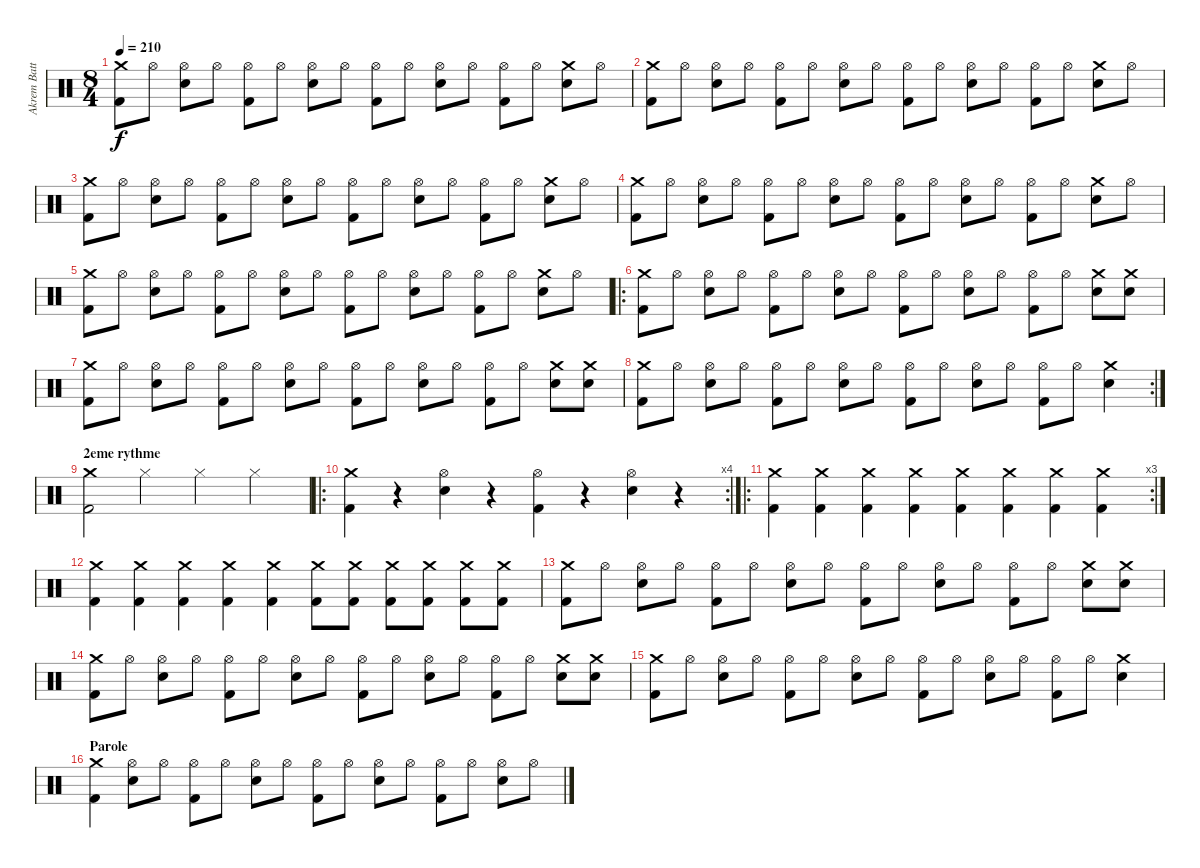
\track ("Akrem Batterie" "Akrem Batt") {instrument percussion}
\staff {score}
\articulation defaults
\ts (8 4)
\tempo 210
\clef neutral
\ks c
("Crash medium (hit)" "Kick (hit) 2").8{dy f} "Hi-Hat (open)".8 ("Hi-Hat (open)" "Electric Snare (hit)").8 "Hi-Hat (open)".8 ("Hi-Hat (open)" "Kick (hit) 2").8 "Hi-Hat (open)".8 ("Hi-Hat (open)" "Electric Snare (hit)").8 "Hi-Hat (open)".8 ("Hi-Hat (open)" "Kick (hit) 2").8 "Hi-Hat (open)".8 ("Hi-Hat (open)" "Electric Snare (hit)").8 "Hi-Hat (open)".8 ("Hi-Hat (open)" "Kick (hit) 2").8 "Hi-Hat (open)".8 ("Crash medium (hit)" "Electric Snare (hit)").8 "Hi-Hat (open)".8 |
("Crash medium (hit)" "Kick (hit) 2").8 "Hi-Hat (open)".8 ("Hi-Hat (open)" "Electric Snare (hit)").8 "Hi-Hat (open)".8 ("Hi-Hat (open)" "Kick (hit) 2").8 "Hi-Hat (open)".8 ("Hi-Hat (open)" "Electric Snare (hit)").8 "Hi-Hat (open)".8 ("Hi-Hat (open)" "Kick (hit) 2").8 "Hi-Hat (open)".8 ("Hi-Hat (open)" "Electric Snare (hit)").8 "Hi-Hat (open)".8 ("Hi-Hat (open)" "Kick (hit) 2").8 "Hi-Hat (open)".8 ("Crash medium (hit)" "Electric Snare (hit)").8 "Hi-Hat (open)".8 |
("Crash medium (hit)" "Kick (hit) 2").8 "Hi-Hat (open)".8 ("Hi-Hat (open)" "Electric Snare (hit)").8 "Hi-Hat (open)".8 ("Hi-Hat (open)" "Kick (hit) 2").8 "Hi-Hat (open)".8 ("Hi-Hat (open)" "Electric Snare (hit)").8 "Hi-Hat (open)".8 ("Hi-Hat (open)" "Kick (hit) 2").8 "Hi-Hat (open)".8 ("Hi-Hat (open)" "Electric Snare (hit)").8 "Hi-Hat (open)".8 ("Hi-Hat (open)" "Kick (hit) 2").8 "Hi-Hat (open)".8 ("Crash medium (hit)" "Electric Snare (hit)").8 "Hi-Hat (open)".8 |
("Crash medium (hit)" "Kick (hit) 2").8 "Hi-Hat (open)".8 ("Hi-Hat (open)" "Electric Snare (hit)").8 "Hi-Hat (open)".8 ("Hi-Hat (open)" "Kick (hit) 2").8 "Hi-Hat (open)".8 ("Hi-Hat (open)" "Electric Snare (hit)").8 "Hi-Hat (open)".8 ("Hi-Hat (open)" "Kick (hit) 2").8 "Hi-Hat (open)".8 ("Hi-Hat (open)" "Electric Snare (hit)").8 "Hi-Hat (open)".8 ("Hi-Hat (open)" "Kick (hit) 2").8 "Hi-Hat (open)".8 ("Crash medium (hit)" "Electric Snare (hit)").8 "Hi-Hat (open)".8 |
("Crash medium (hit)" "Kick (hit) 2").8 "Hi-Hat (open)".8 ("Hi-Hat (open)" "Electric Snare (hit)").8 "Hi-Hat (open)".8 ("Hi-Hat (open)" "Kick (hit) 2").8 "Hi-Hat (open)".8 ("Hi-Hat (open)" "Electric Snare (hit)").8 "Hi-Hat (open)".8 ("Hi-Hat (open)" "Kick (hit) 2").8 "Hi-Hat (open)".8 ("Hi-Hat (open)" "Electric Snare (hit)").8 "Hi-Hat (open)".8 ("Hi-Hat (open)" "Kick (hit) 2").8 "Hi-Hat (open)".8 ("Crash medium (hit)" "Electric Snare (hit)").8 "Hi-Hat (open)".8 |
\ro
("Crash medium (hit)" "Kick (hit) 2").8 "Hi-Hat (open)".8 ("Hi-Hat (open)" "Electric Snare (hit)").8 "Hi-Hat (open)".8 ("Hi-Hat (open)" "Kick (hit) 2").8 "Hi-Hat (open)".8 ("Hi-Hat (open)" "Electric Snare (hit)").8 "Hi-Hat (open)".8 ("Hi-Hat (open)" "Kick (hit) 2").8 "Hi-Hat (open)".8 ("Hi-Hat (open)" "Electric Snare (hit)").8 "Hi-Hat (open)".8 ("Hi-Hat (open)" "Kick (hit) 2").8 "Hi-Hat (open)".8 ("Crash medium (hit)" "Electric Snare (hit)").8 ("Crash medium (hit)" "Electric Snare (hit)").8 |
("Crash medium (hit)" "Kick (hit) 2").8 "Hi-Hat (open)".8 ("Hi-Hat (open)" "Electric Snare (hit)").8 "Hi-Hat (open)".8 ("Hi-Hat (open)" "Kick (hit) 2").8 "Hi-Hat (open)".8 ("Hi-Hat (open)" "Electric Snare (hit)").8 "Hi-Hat (open)".8 ("Hi-Hat (open)" "Kick (hit) 2").8 "Hi-Hat (open)".8 ("Hi-Hat (open)" "Electric Snare (hit)").8 "Hi-Hat (open)".8 ("Hi-Hat (open)" "Kick (hit) 2").8 "Hi-Hat (open)".8 ("Crash medium (hit)" "Electric Snare (hit)").8 ("Crash medium (hit)" "Electric Snare (hit)").8 |
\rc 2
("Crash medium (hit)" "Kick (hit) 2").8 "Hi-Hat (open)".8 ("Hi-Hat (open)" "Electric Snare (hit)").8 "Hi-Hat (open)".8 ("Hi-Hat (open)" "Kick (hit) 2").8 "Hi-Hat (open)".8 ("Hi-Hat (open)" "Electric Snare (hit)").8 "Hi-Hat (open)".8 ("Hi-Hat (open)" "Kick (hit) 2").8 "Hi-Hat (open)".8 ("Hi-Hat (open)" "Electric Snare (hit)").8 "Hi-Hat (open)".8 ("Hi-Hat (open)" "Kick (hit) 2").8 "Hi-Hat (open)".8 ("Crash medium (hit)" "Electric Snare (hit)").4 |
\section ("" "2eme rythme")
("Crash medium (hit)" "Kick (hit) 2").2 "Hi-Hat (closed)".2 "Hi-Hat (closed)".2 "Hi-Hat (closed)".2 |
\ro
\rc 4
("Crash medium (hit)" "Kick (hit) 2").4 r.4 ("Hi-Hat (open)" "Electric Snare (hit)").4 r.4 ("Hi-Hat (open)" "Kick (hit) 2").4 r.4 ("Hi-Hat (open)" "Electric Snare (hit)").4 r.4 |
\ro
\rc 3
("Crash medium (hit)" "Kick (hit) 2").4 ("Crash medium (hit)" "Kick (hit) 2").4 ("Crash medium (hit)" "Kick (hit) 2").4 ("Crash medium (hit)" "Kick (hit) 2").4 ("Crash medium (hit)" "Kick (hit) 2").4 ("Crash medium (hit)" "Kick (hit) 2").4 ("Crash medium (hit)" "Kick (hit) 2").4 ("Crash medium (hit)" "Kick (hit) 2").4 |
("Crash medium (hit)" "Kick (hit) 2").4 ("Crash medium (hit)" "Kick (hit) 2").4 ("Crash medium (hit)" "Kick (hit) 2").4 ("Crash medium (hit)" "Kick (hit) 2").4 ("Crash medium (hit)" "Kick (hit) 2").4 ("Crash medium (hit)" "Kick (hit) 2").8 ("Crash medium (hit)" "Kick (hit) 2").8 ("Crash medium (hit)" "Kick (hit) 2").8 ("Crash medium (hit)" "Kick (hit) 2").8 ("Crash medium (hit)" "Kick (hit) 2").8 ("Crash medium (hit)" "Kick (hit) 2").8 |
("Crash medium (hit)" "Kick (hit) 2").8 "Hi-Hat (open)".8 ("Hi-Hat (open)" "Electric Snare (hit)").8 "Hi-Hat (open)".8 ("Hi-Hat (open)" "Kick (hit) 2").8 "Hi-Hat (open)".8 ("Hi-Hat (open)" "Electric Snare (hit)").8 "Hi-Hat (open)".8 ("Hi-Hat (open)" "Kick (hit) 2").8 "Hi-Hat (open)".8 ("Hi-Hat (open)" "Electric Snare (hit)").8 "Hi-Hat (open)".8 ("Hi-Hat (open)" "Kick (hit) 2").8 "Hi-Hat (open)".8 ("Crash medium (hit)" "Electric Snare (hit)").8 ("Crash medium (hit)" "Electric Snare (hit)").8 |
("Crash medium (hit)" "Kick (hit) 2").8 "Hi-Hat (open)".8 ("Hi-Hat (open)" "Electric Snare (hit)").8 "Hi-Hat (open)".8 ("Hi-Hat (open)" "Kick (hit) 2").8 "Hi-Hat (open)".8 ("Hi-Hat (open)" "Electric Snare (hit)").8 "Hi-Hat (open)".8 ("Hi-Hat (open)" "Kick (hit) 2").8 "Hi-Hat (open)".8 ("Hi-Hat (open)" "Electric Snare (hit)").8 "Hi-Hat (open)".8 ("Hi-Hat (open)" "Kick (hit) 2").8 "Hi-Hat (open)".8 ("Crash medium (hit)" "Electric Snare (hit)").8 ("Crash medium (hit)" "Electric Snare (hit)").8 |
("Crash medium (hit)" "Kick (hit) 2").8 "Hi-Hat (open)".8 ("Hi-Hat (open)" "Electric Snare (hit)").8 "Hi-Hat (open)".8 ("Hi-Hat (open)" "Kick (hit) 2").8 "Hi-Hat (open)".8 ("Hi-Hat (open)" "Electric Snare (hit)").8 "Hi-Hat (open)".8 ("Hi-Hat (open)" "Kick (hit) 2").8 "Hi-Hat (open)".8 ("Hi-Hat (open)" "Electric Snare (hit)").8 "Hi-Hat (open)".8 ("Hi-Hat (open)" "Kick (hit) 2").8 "Hi-Hat (open)".8 ("Crash medium (hit)" "Electric Snare (hit)").4 |
\section ("" "Parole")
("Crash medium (hit)" "Kick (hit) 2").4 ("Hi-Hat (open)" "Electric Snare (hit)").8 "Hi-Hat (open)".8 ("Hi-Hat (open)" "Kick (hit) 2").8 "Hi-Hat (open)".8 ("Hi-Hat (open)" "Electric Snare (hit)").8 "Hi-Hat (open)".8 ("Hi-Hat (open)" "Kick (hit) 2").8 "Hi-Hat (open)".8 ("Hi-Hat (open)" "Electric Snare (hit)").8 "Hi-Hat (open)".8 ("Hi-Hat (open)" "Kick (hit) 2").8 "Hi-Hat (open)".8 ("Hi-Hat (open)" "Electric Snare (hit)").8 "Hi-Hat (open)".8
